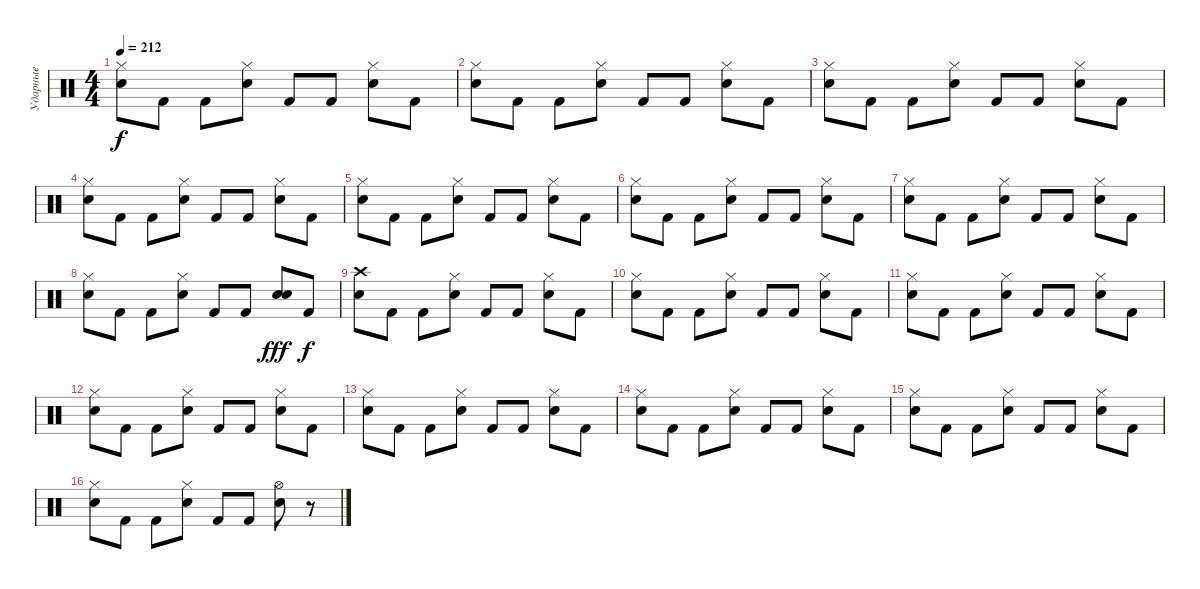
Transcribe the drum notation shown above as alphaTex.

\track ("Ударные" "Ударные") {instrument percussion}
\staff {score}
\articulation defaults
\ts (4 4)
\tempo 212
\clef neutral
\ks c
("Hi-Hat (closed)" "Electric Snare (hit)").8{dy f} "Kick (hit) 2".8 "Kick (hit) 2".8 ("Hi-Hat (closed)" "Electric Snare (hit)").8 "Kick (hit) 2".8 "Kick (hit) 2".8 ("Hi-Hat (closed)" "Electric Snare (hit)").8 "Kick (hit) 2".8 |
("Hi-Hat (closed)" "Electric Snare (hit)").8 "Kick (hit) 2".8 "Kick (hit) 2".8 ("Hi-Hat (closed)" "Electric Snare (hit)").8 "Kick (hit) 2".8 "Kick (hit) 2".8 ("Hi-Hat (closed)" "Electric Snare (hit)").8 "Kick (hit) 2".8 |
("Hi-Hat (closed)" "Electric Snare (hit)").8 "Kick (hit) 2".8 "Kick (hit) 2".8 ("Hi-Hat (closed)" "Electric Snare (hit)").8 "Kick (hit) 2".8 "Kick (hit) 2".8 ("Hi-Hat (closed)" "Electric Snare (hit)").8 "Kick (hit) 2".8 |
("Hi-Hat (closed)" "Electric Snare (hit)").8 "Kick (hit) 2".8 "Kick (hit) 2".8 ("Hi-Hat (closed)" "Electric Snare (hit)").8 "Kick (hit) 2".8 "Kick (hit) 2".8 ("Hi-Hat (closed)" "Electric Snare (hit)").8 "Kick (hit) 2".8 |
("Hi-Hat (closed)" "Electric Snare (hit)").8 "Kick (hit) 2".8 "Kick (hit) 2".8 ("Hi-Hat (closed)" "Electric Snare (hit)").8 "Kick (hit) 2".8 "Kick (hit) 2".8 ("Hi-Hat (closed)" "Electric Snare (hit)").8 "Kick (hit) 2".8 |
("Hi-Hat (closed)" "Electric Snare (hit)").8 "Kick (hit) 2".8 "Kick (hit) 2".8 ("Hi-Hat (closed)" "Electric Snare (hit)").8 "Kick (hit) 2".8 "Kick (hit) 2".8 ("Hi-Hat (closed)" "Electric Snare (hit)").8 "Kick (hit) 2".8 |
("Hi-Hat (closed)" "Electric Snare (hit)").8 "Kick (hit) 2".8 "Kick (hit) 2".8 ("Hi-Hat (closed)" "Electric Snare (hit)").8 "Kick (hit) 2".8 "Kick (hit) 2".8 ("Hi-Hat (closed)" "Electric Snare (hit)").8 "Kick (hit) 2".8 |
("Hi-Hat (closed)" "Electric Snare (hit)").8 "Kick (hit) 2".8 "Kick (hit) 2".8 ("Hi-Hat (closed)" "Electric Snare (hit)").8 "Kick (hit) 2".8 "Kick (hit) 2".8 ("Electric Snare (hit)" "Electric Snare (hit)").8{dy fff} "Kick (hit) 2".8{dy f} |
("Crash high (hit)" "Electric Snare (hit)").8 "Kick (hit) 2".8 "Kick (hit) 2".8 ("Hi-Hat (closed)" "Electric Snare (hit)").8 "Kick (hit) 2".8 "Kick (hit) 2".8 ("Hi-Hat (closed)" "Electric Snare (hit)").8 "Kick (hit) 2".8 |
("Hi-Hat (closed)" "Electric Snare (hit)").8 "Kick (hit) 2".8 "Kick (hit) 2".8 ("Hi-Hat (closed)" "Electric Snare (hit)").8 "Kick (hit) 2".8 "Kick (hit) 2".8 ("Hi-Hat (closed)" "Electric Snare (hit)").8 "Kick (hit) 2".8 |
("Hi-Hat (closed)" "Electric Snare (hit)").8 "Kick (hit) 2".8 "Kick (hit) 2".8 ("Hi-Hat (closed)" "Electric Snare (hit)").8 "Kick (hit) 2".8 "Kick (hit) 2".8 ("Hi-Hat (closed)" "Electric Snare (hit)").8 "Kick (hit) 2".8 |
("Hi-Hat (closed)" "Electric Snare (hit)").8 "Kick (hit) 2".8 "Kick (hit) 2".8 ("Hi-Hat (closed)" "Electric Snare (hit)").8 "Kick (hit) 2".8 "Kick (hit) 2".8 ("Hi-Hat (closed)" "Electric Snare (hit)").8 "Kick (hit) 2".8 |
("Hi-Hat (closed)" "Electric Snare (hit)").8 "Kick (hit) 2".8 "Kick (hit) 2".8 ("Hi-Hat (closed)" "Electric Snare (hit)").8 "Kick (hit) 2".8 "Kick (hit) 2".8 ("Hi-Hat (closed)" "Electric Snare (hit)").8 "Kick (hit) 2".8 |
("Hi-Hat (closed)" "Electric Snare (hit)").8 "Kick (hit) 2".8 "Kick (hit) 2".8 ("Hi-Hat (closed)" "Electric Snare (hit)").8 "Kick (hit) 2".8 "Kick (hit) 2".8 ("Hi-Hat (closed)" "Electric Snare (hit)").8 "Kick (hit) 2".8 |
("Hi-Hat (closed)" "Electric Snare (hit)").8 "Kick (hit) 2".8 "Kick (hit) 2".8 ("Hi-Hat (closed)" "Electric Snare (hit)").8 "Kick (hit) 2".8 "Kick (hit) 2".8 ("Hi-Hat (closed)" "Electric Snare (hit)").8 "Kick (hit) 2".8 |
("Hi-Hat (closed)" "Electric Snare (hit)").8 "Kick (hit) 2".8 "Kick (hit) 2".8 ("Hi-Hat (closed)" "Electric Snare (hit)").8 "Kick (hit) 2".8 "Kick (hit) 2".8 ("Hi-Hat (open)" "Electric Snare (hit)").8 r.8
